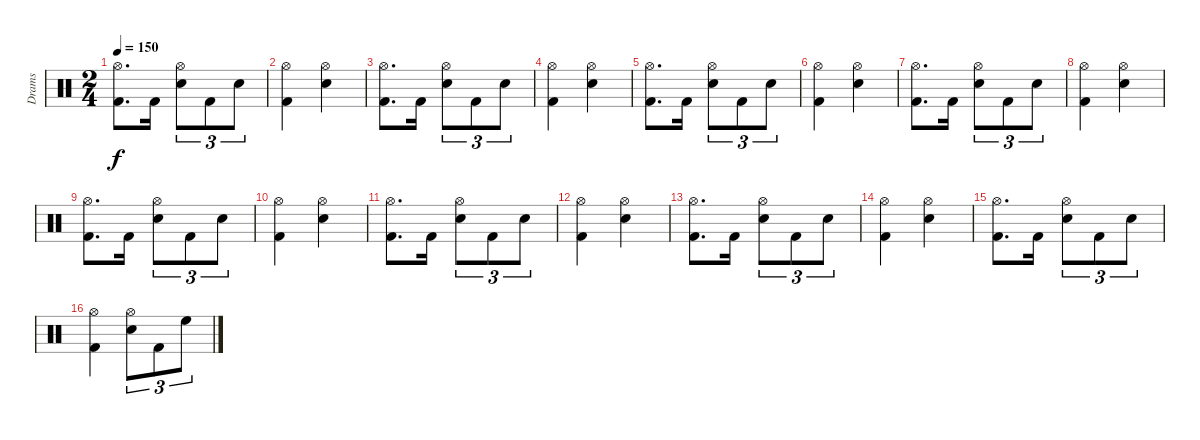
\track ("Drams" "Drams") {instrument percussion}
\staff {score}
\articulation defaults
\ts (2 4)
\tempo 150
\clef neutral
\ks aminor
("Kick (hit) 2" "Hi-Hat (open)").8{d dy f} "Kick (hit) 2".16 ("Electric Snare (hit)" "Hi-Hat (open)").8{tu (3 2)} "Kick (hit) 2".8{tu (3 2)} "Electric Snare (hit)".8{tu (3 2)} |
("Hi-Hat (open)" "Kick (hit) 2").4 ("Hi-Hat (open)" "Electric Snare (hit)").4 |
("Kick (hit) 2" "Hi-Hat (open)").8{d} "Kick (hit) 2".16 ("Electric Snare (hit)" "Hi-Hat (open)").8{tu (3 2)} "Kick (hit) 2".8{tu (3 2)} "Electric Snare (hit)".8{tu (3 2)} |
("Hi-Hat (open)" "Kick (hit) 2").4 ("Hi-Hat (open)" "Electric Snare (hit)").4 |
("Kick (hit) 2" "Hi-Hat (open)").8{d} "Kick (hit) 2".16 ("Electric Snare (hit)" "Hi-Hat (open)").8{tu (3 2)} "Kick (hit) 2".8{tu (3 2)} "Electric Snare (hit)".8{tu (3 2)} |
("Hi-Hat (open)" "Kick (hit) 2").4 ("Hi-Hat (open)" "Electric Snare (hit)").4 |
("Kick (hit) 2" "Hi-Hat (open)").8{d} "Kick (hit) 2".16 ("Electric Snare (hit)" "Hi-Hat (open)").8{tu (3 2)} "Kick (hit) 2".8{tu (3 2)} "Electric Snare (hit)".8{tu (3 2)} |
("Hi-Hat (open)" "Kick (hit) 2").4 ("Hi-Hat (open)" "Electric Snare (hit)").4 |
("Kick (hit) 2" "Hi-Hat (open)").8{d} "Kick (hit) 2".16 ("Electric Snare (hit)" "Hi-Hat (open)").8{tu (3 2)} "Kick (hit) 2".8{tu (3 2)} "Electric Snare (hit)".8{tu (3 2)} |
("Hi-Hat (open)" "Kick (hit) 2").4 ("Hi-Hat (open)" "Electric Snare (hit)").4 |
("Kick (hit) 2" "Hi-Hat (open)").8{d} "Kick (hit) 2".16 ("Electric Snare (hit)" "Hi-Hat (open)").8{tu (3 2)} "Kick (hit) 2".8{tu (3 2)} "Electric Snare (hit)".8{tu (3 2)} |
("Hi-Hat (open)" "Kick (hit) 2").4 ("Hi-Hat (open)" "Electric Snare (hit)").4 |
("Kick (hit) 2" "Hi-Hat (open)").8{d} "Kick (hit) 2".16 ("Electric Snare (hit)" "Hi-Hat (open)").8{tu (3 2)} "Kick (hit) 2".8{tu (3 2)} "Electric Snare (hit)".8{tu (3 2)} |
("Hi-Hat (open)" "Kick (hit) 2").4 ("Hi-Hat (open)" "Electric Snare (hit)").4 |
("Kick (hit) 2" "Hi-Hat (open)").8{d} "Kick (hit) 2".16 ("Electric Snare (hit)" "Hi-Hat (open)").8{tu (3 2)} "Kick (hit) 2".8{tu (3 2)} "Electric Snare (hit)".8{tu (3 2)} |
("Hi-Hat (open)" "Kick (hit) 2").4 ("Hi-Hat (open)" "Electric Snare (hit)").8{tu (3 2)} "Kick (hit) 2".8{tu (3 2)} "High Floor Tom (hit)".8{tu (3 2)}
